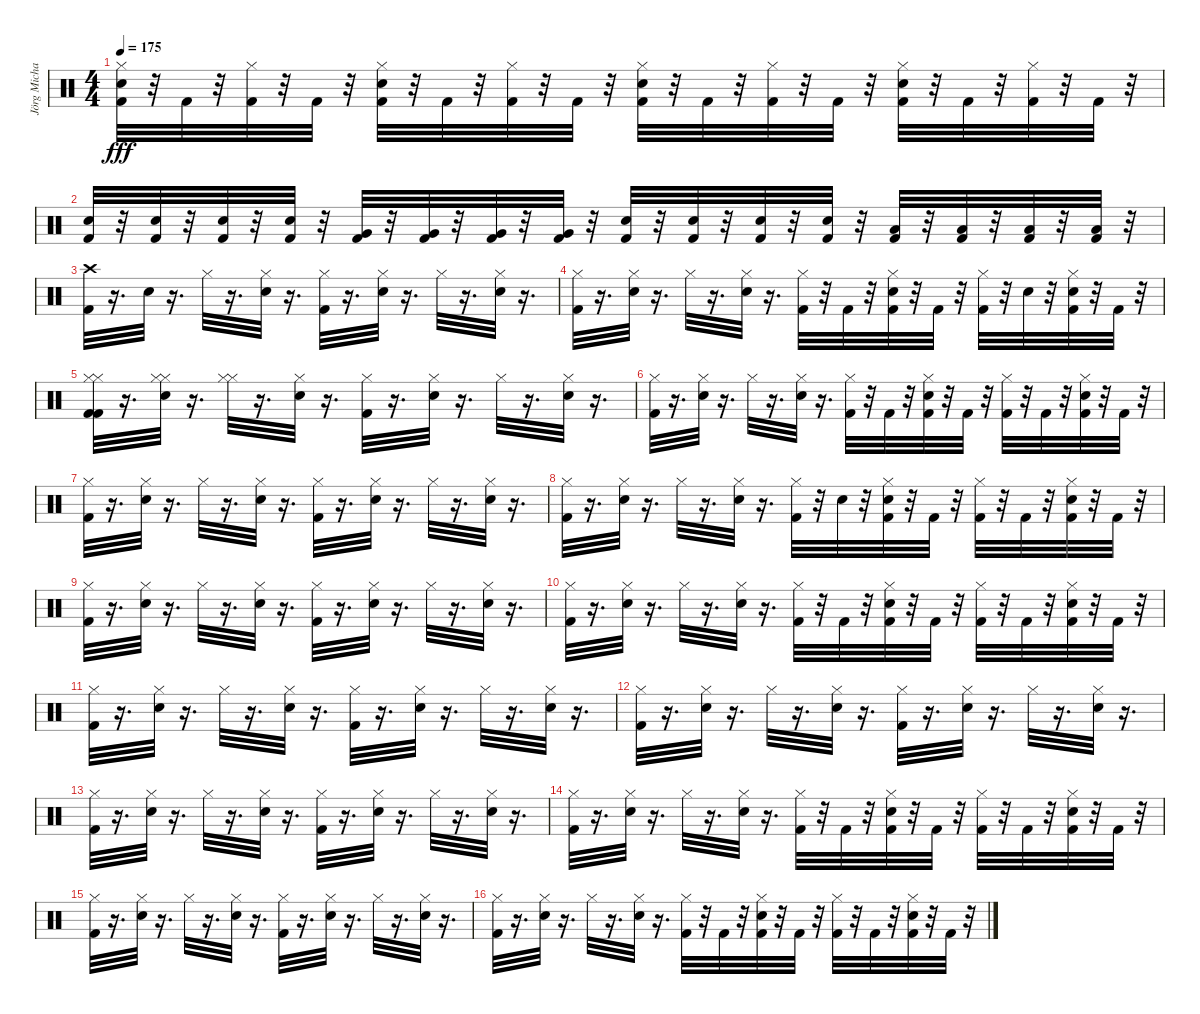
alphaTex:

\track ("Jörg Michael " "Jörg Micha") {instrument percussion}
\staff {score}
\articulation defaults
\ts (4 4)
\tempo 175
\clef neutral
\ks c
("Hi-Hat (closed)" "Snare (hit) 2" "Kick (hit) 2").32{dy fff} r.32 "Kick (hit) 2".32 r.32 ("Hi-Hat (closed)" "Kick (hit) 2").32 r.32 "Kick (hit) 2".32 r.32 ("Hi-Hat (closed)" "Snare (hit) 2" "Kick (hit) 2").32 r.32 "Kick (hit) 2".32 r.32 ("Hi-Hat (closed)" "Kick (hit) 2").32 r.32 "Kick (hit) 2".32 r.32 ("Hi-Hat (closed)" "Snare (hit) 2" "Kick (hit) 2").32 r.32 "Kick (hit) 2".32 r.32 ("Hi-Hat (closed)" "Kick (hit) 2").32 r.32 "Kick (hit) 2".32 r.32 ("Hi-Hat (closed)" "Snare (hit) 2" "Kick (hit) 2").32 r.32 "Kick (hit) 2".32 r.32 ("Hi-Hat (closed)" "Kick (hit) 2").32 r.32 "Kick (hit) 2".32 r.32 |
("Snare (hit) 2" "Kick (hit) 2").32 r.32 ("Snare (hit) 2" "Kick (hit) 2").32 r.32 ("Snare (hit) 2" "Kick (hit) 2").32 r.32 ("Snare (hit) 2" "Kick (hit) 2").32 r.32 ("Kick (hit) 2" "Very Low Tom (hit)").32 r.32 ("Kick (hit) 2" "Very Low Tom (hit)").32 r.32 ("Kick (hit) 2" "Very Low Tom (hit)").32 r.32 ("Kick (hit) 2" "Very Low Tom (hit)").32 r.32 ("Snare (hit) 2" "Kick (hit) 2").32 r.32 ("Snare (hit) 2" "Kick (hit) 2").32 r.32 ("Snare (hit) 2" "Kick (hit) 2").32 r.32 ("Snare (hit) 2" "Kick (hit) 2").32 r.32 ("Low Floor Tom (hit)" "Kick (hit) 2").32 r.32 ("Low Floor Tom (hit)" "Kick (hit) 2").32 r.32 ("Low Floor Tom (hit)" "Kick (hit) 2").32 r.32 ("Low Floor Tom (hit)" "Kick (hit) 2").32 r.32 |
("Crash high (hit)" "Kick (hit) 2").32 r.16{d} "Snare (hit) 2".32 r.16{d} "Hi-Hat (closed)".32 r.16{d} ("Hi-Hat (closed)" "Snare (hit) 2").32 r.16{d} ("Hi-Hat (closed)" "Kick (hit) 2").32 r.16{d} ("Hi-Hat (closed)" "Snare (hit) 2").32 r.16{d} "Hi-Hat (closed)".32 r.16{d} ("Hi-Hat (closed)" "Snare (hit) 2").32 r.16{d} |
("Hi-Hat (closed)" "Kick (hit) 2").32 r.16{d} ("Hi-Hat (closed)" "Snare (hit) 2").32 r.16{d} "Hi-Hat (closed)".32 r.16{d} ("Hi-Hat (closed)" "Snare (hit) 2").32 r.16{d} ("Hi-Hat (closed)" "Kick (hit) 2").32 r.32 "Kick (hit) 2".32 r.32 ("Hi-Hat (closed)" "Snare (hit) 2" "Kick (hit) 2").32 r.32 "Kick (hit) 2".32 r.32 ("Hi-Hat (closed)" "Kick (hit) 2").32 r.32 "Snare (hit)".32 r.32 ("Hi-Hat (closed)" "Snare (hit) 2" "Kick (hit) 2").32 r.32 "Kick (hit) 2".32 r.32 |
("Hi-Hat (closed)" "Hi-Hat (closed)" "Kick (hit) 2" "Kick (hit) 2").32 r.16{d} ("Hi-Hat (closed)" "Hi-Hat (closed)" "Snare (hit) 2").32 r.16{d} ("Hi-Hat (closed)" "Hi-Hat (closed)").32 r.16{d} ("Hi-Hat (closed)" "Snare (hit) 2").32 r.16{d} ("Hi-Hat (closed)" "Kick (hit) 2").32 r.16{d} ("Hi-Hat (closed)" "Snare (hit) 2").32 r.16{d} "Hi-Hat (closed)".32 r.16{d} ("Hi-Hat (closed)" "Snare (hit) 2").32 r.16{d} |
("Hi-Hat (closed)" "Kick (hit) 2").32 r.16{d} ("Hi-Hat (closed)" "Snare (hit) 2").32 r.16{d} "Hi-Hat (closed)".32 r.16{d} ("Hi-Hat (closed)" "Snare (hit) 2").32 r.16{d} ("Hi-Hat (closed)" "Kick (hit) 2").32 r.32 "Kick (hit) 2".32 r.32 ("Hi-Hat (closed)" "Snare (hit) 2" "Kick (hit) 2").32 r.32 "Kick (hit) 2".32 r.32 ("Hi-Hat (closed)" "Kick (hit) 2").32 r.32 "Kick (hit) 2".32 r.32 ("Hi-Hat (closed)" "Snare (hit) 2" "Kick (hit) 2").32 r.32 "Kick (hit) 2".32 r.32 |
("Hi-Hat (closed)" "Kick (hit) 2").32 r.16{d} ("Hi-Hat (closed)" "Snare (hit) 2").32 r.16{d} "Hi-Hat (closed)".32 r.16{d} ("Hi-Hat (closed)" "Snare (hit) 2").32 r.16{d} ("Hi-Hat (closed)" "Kick (hit) 2").32 r.16{d} ("Hi-Hat (closed)" "Snare (hit) 2").32 r.16{d} "Hi-Hat (closed)".32 r.16{d} ("Hi-Hat (closed)" "Snare (hit) 2").32 r.16{d} |
("Hi-Hat (closed)" "Kick (hit) 2").32 r.16{d} ("Hi-Hat (closed)" "Snare (hit) 2").32 r.16{d} "Hi-Hat (closed)".32 r.16{d} ("Hi-Hat (closed)" "Snare (hit) 2").32 r.16{d} ("Hi-Hat (closed)" "Kick (hit) 2").32 r.32 "Snare (hit)".32 r.32 ("Hi-Hat (closed)" "Snare (hit) 2" "Kick (hit) 2").32 r.32 "Kick (hit) 2".32 r.32 ("Hi-Hat (closed)" "Kick (hit) 2").32 r.32 "Kick (hit) 2".32 r.32 ("Hi-Hat (closed)" "Snare (hit) 2" "Kick (hit) 2").32 r.32 "Kick (hit) 2".32 r.32 |
("Hi-Hat (closed)" "Kick (hit) 2").32 r.16{d} ("Hi-Hat (closed)" "Snare (hit) 2").32 r.16{d} "Hi-Hat (closed)".32 r.16{d} ("Hi-Hat (closed)" "Snare (hit) 2").32 r.16{d} ("Hi-Hat (closed)" "Kick (hit) 2").32 r.16{d} ("Hi-Hat (closed)" "Snare (hit) 2").32 r.16{d} "Hi-Hat (closed)".32 r.16{d} ("Hi-Hat (closed)" "Snare (hit) 2").32 r.16{d} |
("Hi-Hat (closed)" "Kick (hit) 2").32 r.16{d} ("Hi-Hat (closed)" "Snare (hit) 2").32 r.16{d} "Hi-Hat (closed)".32 r.16{d} ("Hi-Hat (closed)" "Snare (hit) 2").32 r.16{d} ("Hi-Hat (closed)" "Kick (hit) 2").32 r.32 "Kick (hit) 2".32 r.32 ("Hi-Hat (closed)" "Snare (hit) 2" "Kick (hit) 2").32 r.32 "Kick (hit) 2".32 r.32 ("Hi-Hat (closed)" "Kick (hit) 2").32 r.32 "Kick (hit) 2".32 r.32 ("Hi-Hat (closed)" "Snare (hit) 2" "Kick (hit) 2").32 r.32 "Kick (hit) 2".32 r.32 |
("Hi-Hat (closed)" "Kick (hit) 2").32 r.16{d} ("Hi-Hat (closed)" "Snare (hit) 2").32 r.16{d} "Hi-Hat (closed)".32 r.16{d} ("Hi-Hat (closed)" "Snare (hit) 2").32 r.16{d} ("Hi-Hat (closed)" "Kick (hit) 2").32 r.16{d} ("Hi-Hat (closed)" "Snare (hit) 2").32 r.16{d} "Hi-Hat (closed)".32 r.16{d} ("Hi-Hat (closed)" "Snare (hit) 2").32 r.16{d} |
("Hi-Hat (closed)" "Kick (hit) 2").32 r.16{d} ("Hi-Hat (closed)" "Snare (hit) 2").32 r.16{d} "Hi-Hat (closed)".32 r.16{d} ("Hi-Hat (closed)" "Snare (hit) 2").32 r.16{d} ("Hi-Hat (closed)" "Kick (hit) 2").32 r.16{d} ("Hi-Hat (closed)" "Snare (hit) 2").32 r.16{d} "Hi-Hat (closed)".32 r.16{d} ("Hi-Hat (closed)" "Snare (hit) 2").32 r.16{d} |
("Hi-Hat (closed)" "Kick (hit) 2").32 r.16{d} ("Hi-Hat (closed)" "Snare (hit) 2").32 r.16{d} "Hi-Hat (closed)".32 r.16{d} ("Hi-Hat (closed)" "Snare (hit) 2").32 r.16{d} ("Hi-Hat (closed)" "Kick (hit) 2").32 r.16{d} ("Hi-Hat (closed)" "Snare (hit) 2").32 r.16{d} "Hi-Hat (closed)".32 r.16{d} ("Hi-Hat (closed)" "Snare (hit) 2").32 r.16{d} |
("Hi-Hat (closed)" "Kick (hit) 2").32 r.16{d} ("Hi-Hat (closed)" "Snare (hit) 2").32 r.16{d} "Hi-Hat (closed)".32 r.16{d} ("Hi-Hat (closed)" "Snare (hit) 2").32 r.16{d} ("Hi-Hat (closed)" "Kick (hit) 2").32 r.32 "Kick (hit) 2".32 r.32 ("Hi-Hat (closed)" "Snare (hit) 2" "Kick (hit) 2").32 r.32 "Kick (hit) 2".32 r.32 ("Hi-Hat (closed)" "Kick (hit) 2").32 r.32 "Kick (hit) 2".32 r.32 ("Hi-Hat (closed)" "Snare (hit) 2" "Kick (hit) 2").32 r.32 "Kick (hit) 2".32 r.32 |
("Hi-Hat (closed)" "Kick (hit) 2").32 r.16{d} ("Hi-Hat (closed)" "Snare (hit) 2").32 r.16{d} "Hi-Hat (closed)".32 r.16{d} ("Hi-Hat (closed)" "Snare (hit) 2").32 r.16{d} ("Hi-Hat (closed)" "Kick (hit) 2").32 r.16{d} ("Hi-Hat (closed)" "Snare (hit) 2").32 r.16{d} "Hi-Hat (closed)".32 r.16{d} ("Hi-Hat (closed)" "Snare (hit) 2").32 r.16{d} |
("Hi-Hat (closed)" "Kick (hit) 2").32 r.16{d} ("Hi-Hat (closed)" "Snare (hit) 2").32 r.16{d} "Hi-Hat (closed)".32 r.16{d} ("Hi-Hat (closed)" "Snare (hit) 2").32 r.16{d} ("Hi-Hat (closed)" "Kick (hit) 2").32 r.32 "Kick (hit) 2".32 r.32 ("Hi-Hat (closed)" "Snare (hit) 2" "Kick (hit) 2").32 r.32 "Kick (hit) 2".32 r.32 ("Hi-Hat (closed)" "Kick (hit) 2").32 r.32 "Kick (hit) 2".32 r.32 ("Hi-Hat (closed)" "Snare (hit) 2" "Kick (hit) 2").32 r.32 "Kick (hit) 2".32 r.32
